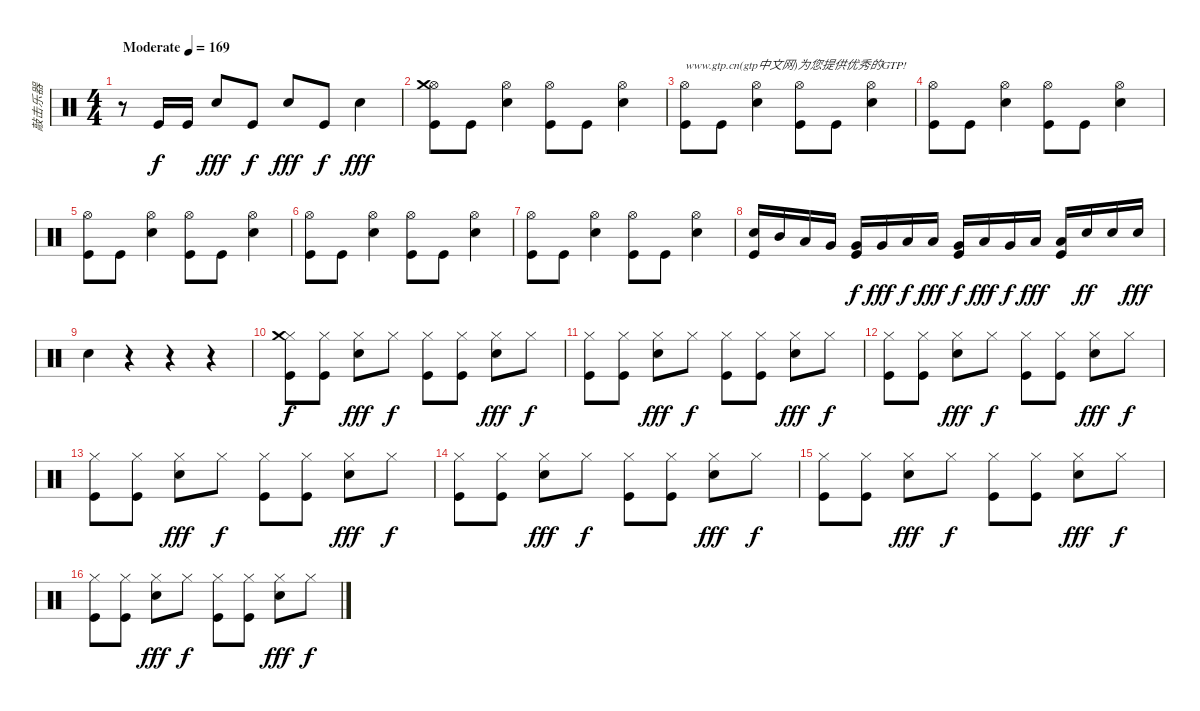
\track ("敲击乐器" "敲击乐器") {instrument percussion}
\staff {score}
\articulation defaults
\ts (4 4)
\tempo (169 "Moderate")
\clef neutral
\ks c
r.8{dy f} "Kick (hit)".16 "Kick (hit)".16 "Electric Snare (hit)".8{dy fff} "Kick (hit)".8{dy f} "Electric Snare (hit)".8{dy fff} "Kick (hit)".8{dy f} "Electric Snare (hit)".4{dy fff} |
("Hi-Hat (open)" "Crash medium (hit)" "Kick (hit)").8 "Kick (hit)".8 ("Electric Snare (hit)" "Hi-Hat (open)").4 ("Hi-Hat (open)" "Kick (hit)").8 "Kick (hit)".8 ("Hi-Hat (open)" "Electric Snare (hit)").4 |
("Hi-Hat (open)" "Kick (hit)").8{txt "www.gtp.cn(gtp中文网)为您提供优秀的GTP!"} "Kick (hit)".8 ("Electric Snare (hit)" "Hi-Hat (open)").4 ("Hi-Hat (open)" "Kick (hit)").8 "Kick (hit)".8 ("Electric Snare (hit)" "Hi-Hat (open)").4 |
("Hi-Hat (open)" "Kick (hit)").8 "Kick (hit)".8 ("Electric Snare (hit)" "Hi-Hat (open)").4 ("Hi-Hat (open)" "Kick (hit)").8 "Kick (hit)".8 ("Electric Snare (hit)" "Hi-Hat (open)").4 |
("Hi-Hat (open)" "Kick (hit)").8 "Kick (hit)".8 ("Electric Snare (hit)" "Hi-Hat (open)").4 ("Hi-Hat (open)" "Kick (hit)").8 "Kick (hit)".8 ("Electric Snare (hit)" "Hi-Hat (open)").4 |
("Hi-Hat (open)" "Kick (hit)").8 "Kick (hit)".8 ("Electric Snare (hit)" "Hi-Hat (open)").4 ("Hi-Hat (open)" "Kick (hit)").8 "Kick (hit)".8 ("Electric Snare (hit)" "Hi-Hat (open)").4 |
("Hi-Hat (open)" "Kick (hit)").8 "Kick (hit)".8 ("Electric Snare (hit)" "Hi-Hat (open)").4 ("Hi-Hat (open)" "Kick (hit)").8 "Kick (hit)".8 ("Electric Snare (hit)" "Hi-Hat (open)").4 |
("Electric Snare (hit)" "Kick (hit)").16 "Mid Tom (hit)".16 "Low Tom (hit)".16 "Very Low Tom (hit)".16 ("Very Low Tom (hit)" "Kick (hit)").16{dy f} "Very Low Tom (hit)".16{dy fff} "Low Floor Tom (hit)".16{dy f} "Low Floor Tom (hit)".16{dy fff} ("Very Low Tom (hit)" "Kick (hit)").16{dy f} "Low Floor Tom (hit)".16{dy fff} "Very Low Tom (hit)".16{dy f} "Low Floor Tom (hit)".16{dy fff} ("Low Floor Tom (hit)" "Kick (hit)").16 "Electric Snare (hit)".16{dy ff} "Electric Snare (hit)".16 "Electric Snare (hit)".16{dy fff} |
"Electric Snare (hit)".4 r.4 r.4 r.4 |
("Hi-Hat (closed)" "Crash medium (hit)" "Kick (hit)").8{dy f} ("Hi-Hat (closed)" "Kick (hit)").8 ("Hi-Hat (closed)" "Electric Snare (hit)").8{dy fff} "Hi-Hat (closed)".8{dy f} ("Hi-Hat (closed)" "Kick (hit)").8 ("Hi-Hat (closed)" "Kick (hit)").8 ("Hi-Hat (closed)" "Electric Snare (hit)").8{dy fff} "Hi-Hat (closed)".8{dy f} |
("Hi-Hat (closed)" "Kick (hit)").8 ("Hi-Hat (closed)" "Kick (hit)").8 ("Hi-Hat (closed)" "Electric Snare (hit)").8{dy fff} "Hi-Hat (closed)".8{dy f} ("Hi-Hat (closed)" "Kick (hit)").8 ("Hi-Hat (closed)" "Kick (hit)").8 ("Hi-Hat (closed)" "Electric Snare (hit)").8{dy fff} "Hi-Hat (closed)".8{dy f} |
("Hi-Hat (closed)" "Kick (hit)").8 ("Hi-Hat (closed)" "Kick (hit)").8 ("Hi-Hat (closed)" "Electric Snare (hit)").8{dy fff} "Hi-Hat (closed)".8{dy f} ("Hi-Hat (closed)" "Kick (hit)").8 ("Hi-Hat (closed)" "Kick (hit)").8 ("Hi-Hat (closed)" "Electric Snare (hit)").8{dy fff} "Hi-Hat (closed)".8{dy f} |
("Hi-Hat (closed)" "Kick (hit)").8 ("Hi-Hat (closed)" "Kick (hit)").8 ("Hi-Hat (closed)" "Electric Snare (hit)").8{dy fff} "Hi-Hat (closed)".8{dy f} ("Hi-Hat (closed)" "Kick (hit)").8 ("Hi-Hat (closed)" "Kick (hit)").8 ("Hi-Hat (closed)" "Electric Snare (hit)").8{dy fff} "Hi-Hat (closed)".8{dy f} |
("Hi-Hat (closed)" "Kick (hit)").8 ("Hi-Hat (closed)" "Kick (hit)").8 ("Hi-Hat (closed)" "Electric Snare (hit)").8{dy fff} "Hi-Hat (closed)".8{dy f} ("Hi-Hat (closed)" "Kick (hit)").8 ("Hi-Hat (closed)" "Kick (hit)").8 ("Hi-Hat (closed)" "Electric Snare (hit)").8{dy fff} "Hi-Hat (closed)".8{dy f} |
("Hi-Hat (closed)" "Kick (hit)").8 ("Hi-Hat (closed)" "Kick (hit)").8 ("Hi-Hat (closed)" "Electric Snare (hit)").8{dy fff} "Hi-Hat (closed)".8{dy f} ("Hi-Hat (closed)" "Kick (hit)").8 ("Hi-Hat (closed)" "Kick (hit)").8 ("Hi-Hat (closed)" "Electric Snare (hit)").8{dy fff} "Hi-Hat (closed)".8{dy f} |
("Hi-Hat (closed)" "Kick (hit)").8 ("Hi-Hat (closed)" "Kick (hit)").8 ("Hi-Hat (closed)" "Electric Snare (hit)").8{dy fff} "Hi-Hat (closed)".8{dy f} ("Hi-Hat (closed)" "Kick (hit)").8 ("Hi-Hat (closed)" "Kick (hit)").8 ("Hi-Hat (closed)" "Electric Snare (hit)").8{dy fff} "Hi-Hat (closed)".8{dy f}
